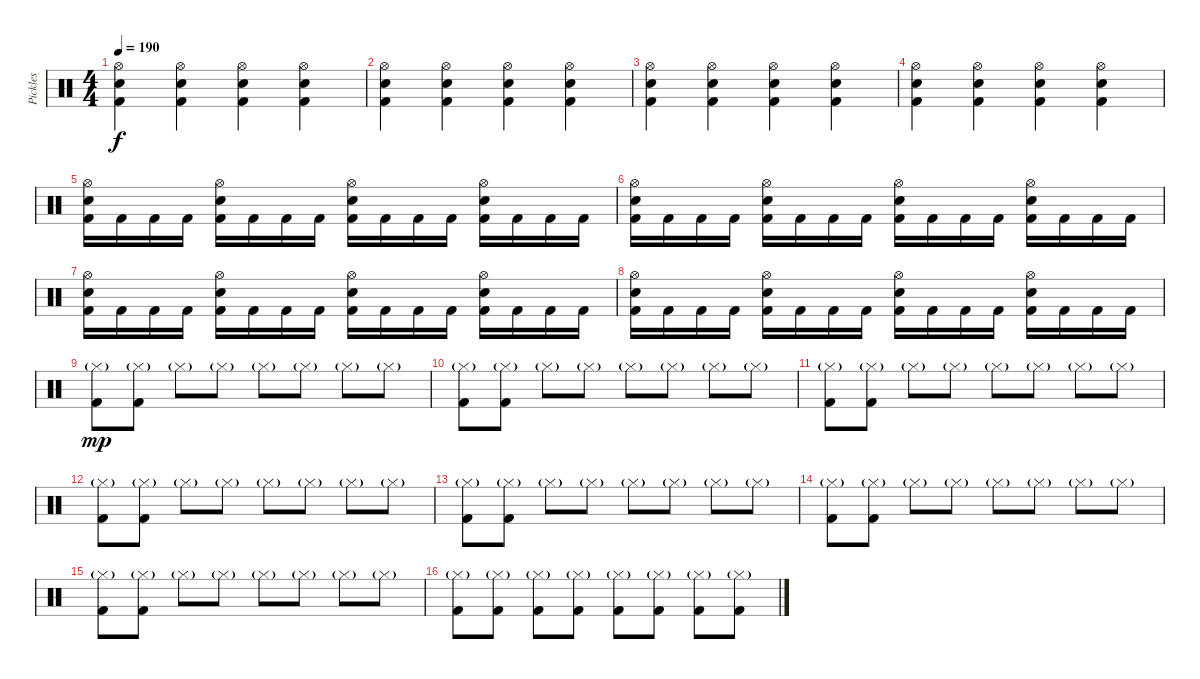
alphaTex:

\track ("Pickles" "Pickles") {instrument percussion}
\staff {score}
\articulation defaults
\ts (4 4)
\tempo 190
\clef neutral
\ks c
("Hi-Hat (open)" "Electric Snare (hit)" "Kick (hit) 2").4{dy f} ("Hi-Hat (open)" "Electric Snare (hit)" "Kick (hit) 2").4 ("Hi-Hat (open)" "Electric Snare (hit)" "Kick (hit) 2").4 ("Hi-Hat (open)" "Electric Snare (hit)" "Kick (hit) 2").4 |
("Hi-Hat (open)" "Electric Snare (hit)" "Kick (hit) 2").4 ("Hi-Hat (open)" "Electric Snare (hit)" "Kick (hit) 2").4 ("Hi-Hat (open)" "Electric Snare (hit)" "Kick (hit) 2").4 ("Hi-Hat (open)" "Electric Snare (hit)" "Kick (hit) 2").4 |
("Hi-Hat (open)" "Electric Snare (hit)" "Kick (hit) 2").4 ("Hi-Hat (open)" "Electric Snare (hit)" "Kick (hit) 2").4 ("Hi-Hat (open)" "Electric Snare (hit)" "Kick (hit) 2").4 ("Hi-Hat (open)" "Electric Snare (hit)" "Kick (hit) 2").4 |
("Hi-Hat (open)" "Electric Snare (hit)" "Kick (hit) 2").4 ("Hi-Hat (open)" "Electric Snare (hit)" "Kick (hit) 2").4 ("Hi-Hat (open)" "Electric Snare (hit)" "Kick (hit) 2").4 ("Hi-Hat (open)" "Electric Snare (hit)" "Kick (hit) 2").4 |
("Hi-Hat (open)" "Electric Snare (hit)" "Kick (hit) 2").16 "Kick (hit) 2".16 "Kick (hit) 2".16 "Kick (hit) 2".16 ("Hi-Hat (open)" "Electric Snare (hit)" "Kick (hit) 2").16 "Kick (hit) 2".16 "Kick (hit) 2".16 "Kick (hit) 2".16 ("Hi-Hat (open)" "Electric Snare (hit)" "Kick (hit) 2").16 "Kick (hit) 2".16 "Kick (hit) 2".16 "Kick (hit) 2".16 ("Hi-Hat (open)" "Electric Snare (hit)" "Kick (hit) 2").16 "Kick (hit) 2".16 "Kick (hit) 2".16 "Kick (hit) 2".16 |
("Hi-Hat (open)" "Electric Snare (hit)" "Kick (hit) 2").16 "Kick (hit) 2".16 "Kick (hit) 2".16 "Kick (hit) 2".16 ("Hi-Hat (open)" "Electric Snare (hit)" "Kick (hit) 2").16 "Kick (hit) 2".16 "Kick (hit) 2".16 "Kick (hit) 2".16 ("Hi-Hat (open)" "Electric Snare (hit)" "Kick (hit) 2").16 "Kick (hit) 2".16 "Kick (hit) 2".16 "Kick (hit) 2".16 ("Hi-Hat (open)" "Electric Snare (hit)" "Kick (hit) 2").16 "Kick (hit) 2".16 "Kick (hit) 2".16 "Kick (hit) 2".16 |
("Hi-Hat (open)" "Electric Snare (hit)" "Kick (hit) 2").16 "Kick (hit) 2".16 "Kick (hit) 2".16 "Kick (hit) 2".16 ("Hi-Hat (open)" "Electric Snare (hit)" "Kick (hit) 2").16 "Kick (hit) 2".16 "Kick (hit) 2".16 "Kick (hit) 2".16 ("Hi-Hat (open)" "Electric Snare (hit)" "Kick (hit) 2").16 "Kick (hit) 2".16 "Kick (hit) 2".16 "Kick (hit) 2".16 ("Hi-Hat (open)" "Electric Snare (hit)" "Kick (hit) 2").16 "Kick (hit) 2".16 "Kick (hit) 2".16 "Kick (hit) 2".16 |
("Hi-Hat (open)" "Electric Snare (hit)" "Kick (hit) 2").16 "Kick (hit) 2".16 "Kick (hit) 2".16 "Kick (hit) 2".16 ("Hi-Hat (open)" "Electric Snare (hit)" "Kick (hit) 2").16 "Kick (hit) 2".16 "Kick (hit) 2".16 "Kick (hit) 2".16 ("Hi-Hat (open)" "Electric Snare (hit)" "Kick (hit) 2").16 "Kick (hit) 2".16 "Kick (hit) 2".16 "Kick (hit) 2".16 ("Hi-Hat (open)" "Electric Snare (hit)" "Kick (hit) 2").16 "Kick (hit) 2".16 "Kick (hit) 2".16 "Kick (hit) 2".16 |
("Hi-Hat (closed)"{g} "Kick (hit) 2").8{dy mp} ("Hi-Hat (closed)"{g} "Kick (hit) 2").8 "Hi-Hat (closed)"{g}.8 "Hi-Hat (closed)"{g}.8 "Hi-Hat (closed)"{g}.8 "Hi-Hat (closed)"{g}.8 "Hi-Hat (closed)"{g}.8 "Hi-Hat (closed)"{g}.8 |
("Hi-Hat (closed)"{g} "Kick (hit) 2").8 ("Hi-Hat (closed)"{g} "Kick (hit) 2").8 "Hi-Hat (closed)"{g}.8 "Hi-Hat (closed)"{g}.8 "Hi-Hat (closed)"{g}.8 "Hi-Hat (closed)"{g}.8 "Hi-Hat (closed)"{g}.8 "Hi-Hat (closed)"{g}.8 |
("Hi-Hat (closed)"{g} "Kick (hit) 2").8 ("Hi-Hat (closed)"{g} "Kick (hit) 2").8 "Hi-Hat (closed)"{g}.8 "Hi-Hat (closed)"{g}.8 "Hi-Hat (closed)"{g}.8 "Hi-Hat (closed)"{g}.8 "Hi-Hat (closed)"{g}.8 "Hi-Hat (closed)"{g}.8 |
("Hi-Hat (closed)"{g} "Kick (hit) 2").8 ("Hi-Hat (closed)"{g} "Kick (hit) 2").8 "Hi-Hat (closed)"{g}.8 "Hi-Hat (closed)"{g}.8 "Hi-Hat (closed)"{g}.8 "Hi-Hat (closed)"{g}.8 "Hi-Hat (closed)"{g}.8 "Hi-Hat (closed)"{g}.8 |
("Hi-Hat (closed)"{g} "Kick (hit) 2").8 ("Hi-Hat (closed)"{g} "Kick (hit) 2").8 "Hi-Hat (closed)"{g}.8 "Hi-Hat (closed)"{g}.8 "Hi-Hat (closed)"{g}.8 "Hi-Hat (closed)"{g}.8 "Hi-Hat (closed)"{g}.8 "Hi-Hat (closed)"{g}.8 |
("Hi-Hat (closed)"{g} "Kick (hit) 2").8 ("Hi-Hat (closed)"{g} "Kick (hit) 2").8 "Hi-Hat (closed)"{g}.8 "Hi-Hat (closed)"{g}.8 "Hi-Hat (closed)"{g}.8 "Hi-Hat (closed)"{g}.8 "Hi-Hat (closed)"{g}.8 "Hi-Hat (closed)"{g}.8 |
("Hi-Hat (closed)"{g} "Kick (hit) 2").8 ("Hi-Hat (closed)"{g} "Kick (hit) 2").8 "Hi-Hat (closed)"{g}.8 "Hi-Hat (closed)"{g}.8 "Hi-Hat (closed)"{g}.8 "Hi-Hat (closed)"{g}.8 "Hi-Hat (closed)"{g}.8 "Hi-Hat (closed)"{g}.8 |
("Hi-Hat (closed)"{g} "Kick (hit) 2").8 ("Hi-Hat (closed)"{g} "Kick (hit) 2").8 ("Hi-Hat (closed)"{g} "Kick (hit) 2").8 ("Hi-Hat (closed)"{g} "Kick (hit) 2").8 ("Hi-Hat (closed)"{g} "Kick (hit) 2").8 ("Hi-Hat (closed)"{g} "Kick (hit) 2").8 ("Hi-Hat (closed)"{g} "Kick (hit) 2").8 ("Hi-Hat (closed)"{g} "Kick (hit) 2").8
